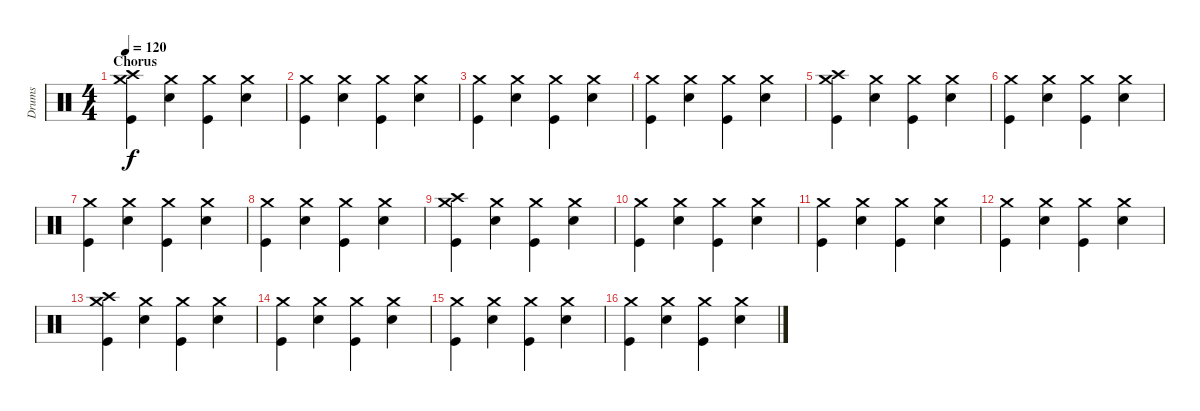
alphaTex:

\track ("Drums" "Drums") {instrument percussion}
\staff {score}
\articulation defaults
\ts (4 4)
\section ("" "Chorus")
\tempo 120
\clef neutral
\ks c
("Crash high (hit)" "Crash medium (hit)" "Kick (hit)").4{dy f} ("Crash medium (hit)" "Electric Snare (hit)").4 ("Crash medium (hit)" "Kick (hit)").4 ("Crash medium (hit)" "Electric Snare (hit)").4 |
("Crash medium (hit)" "Kick (hit)").4 ("Crash medium (hit)" "Electric Snare (hit)").4 ("Crash medium (hit)" "Kick (hit)").4 ("Crash medium (hit)" "Electric Snare (hit)").4 |
("Crash medium (hit)" "Kick (hit)").4 ("Crash medium (hit)" "Electric Snare (hit)").4 ("Crash medium (hit)" "Kick (hit)").4 ("Crash medium (hit)" "Electric Snare (hit)").4 |
("Crash medium (hit)" "Kick (hit)").4 ("Crash medium (hit)" "Electric Snare (hit)").4 ("Crash medium (hit)" "Kick (hit)").4 ("Crash medium (hit)" "Electric Snare (hit)").4 |
("Crash high (hit)" "Crash medium (hit)" "Kick (hit)").4 ("Crash medium (hit)" "Electric Snare (hit)").4 ("Crash medium (hit)" "Kick (hit)").4 ("Crash medium (hit)" "Electric Snare (hit)").4 |
("Crash medium (hit)" "Kick (hit)").4 ("Crash medium (hit)" "Electric Snare (hit)").4 ("Crash medium (hit)" "Kick (hit)").4 ("Crash medium (hit)" "Electric Snare (hit)").4 |
("Crash medium (hit)" "Kick (hit)").4 ("Crash medium (hit)" "Electric Snare (hit)").4 ("Crash medium (hit)" "Kick (hit)").4 ("Crash medium (hit)" "Electric Snare (hit)").4 |
("Crash medium (hit)" "Kick (hit)").4 ("Crash medium (hit)" "Electric Snare (hit)").4 ("Crash medium (hit)" "Kick (hit)").4 ("Crash medium (hit)" "Electric Snare (hit)").4 |
("Crash high (hit)" "Crash medium (hit)" "Kick (hit)").4 ("Crash medium (hit)" "Electric Snare (hit)").4 ("Crash medium (hit)" "Kick (hit)").4 ("Crash medium (hit)" "Electric Snare (hit)").4 |
("Crash medium (hit)" "Kick (hit)").4 ("Crash medium (hit)" "Electric Snare (hit)").4 ("Crash medium (hit)" "Kick (hit)").4 ("Crash medium (hit)" "Electric Snare (hit)").4 |
("Crash medium (hit)" "Kick (hit)").4 ("Crash medium (hit)" "Electric Snare (hit)").4 ("Crash medium (hit)" "Kick (hit)").4 ("Crash medium (hit)" "Electric Snare (hit)").4 |
("Crash medium (hit)" "Kick (hit)").4 ("Crash medium (hit)" "Electric Snare (hit)").4 ("Crash medium (hit)" "Kick (hit)").4 ("Crash medium (hit)" "Electric Snare (hit)").4 |
("Crash high (hit)" "Crash medium (hit)" "Kick (hit)").4 ("Crash medium (hit)" "Electric Snare (hit)").4 ("Crash medium (hit)" "Kick (hit)").4 ("Crash medium (hit)" "Electric Snare (hit)").4 |
("Crash medium (hit)" "Kick (hit)").4 ("Crash medium (hit)" "Electric Snare (hit)").4 ("Crash medium (hit)" "Kick (hit)").4 ("Crash medium (hit)" "Electric Snare (hit)").4 |
("Crash medium (hit)" "Kick (hit)").4 ("Crash medium (hit)" "Electric Snare (hit)").4 ("Crash medium (hit)" "Kick (hit)").4 ("Crash medium (hit)" "Electric Snare (hit)").4 |
("Crash medium (hit)" "Kick (hit)").4 ("Crash medium (hit)" "Electric Snare (hit)").4 ("Crash medium (hit)" "Kick (hit)").4 ("Crash medium (hit)" "Electric Snare (hit)").4
